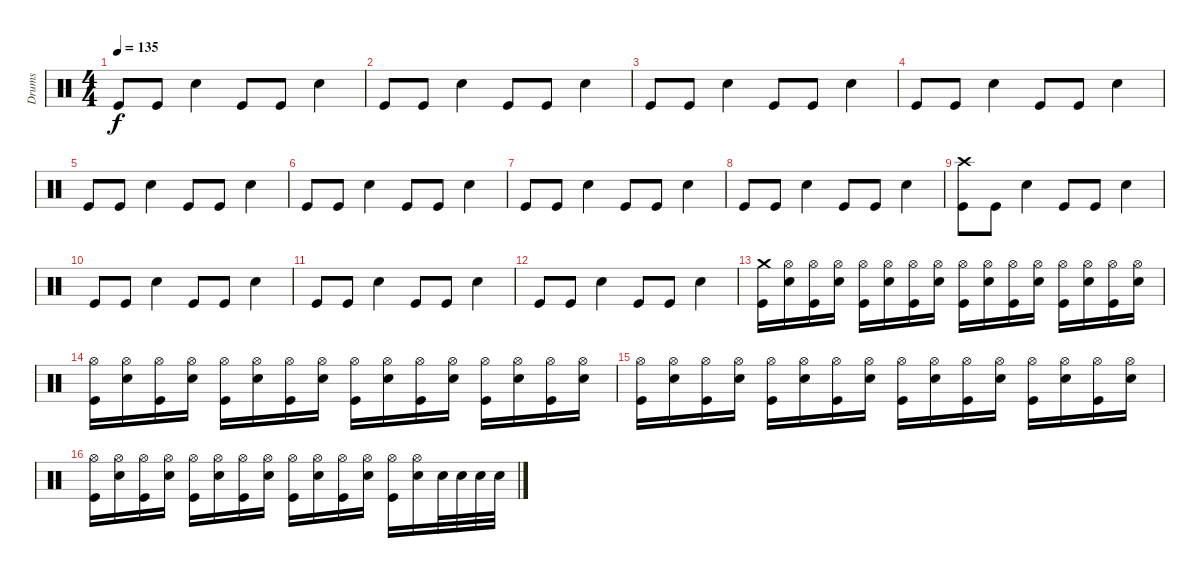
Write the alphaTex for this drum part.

\track ("Drums" "Drums") {instrument percussion}
\staff {score}
\articulation defaults
\ts (4 4)
\tempo 135
\clef neutral
\ks c "Kick (hit)".8{dy f} "Kick (hit)".8 "Snare (hit) 2".4 "Kick (hit)".8 "Kick (hit)".8 "Snare (hit) 2".4
|
"Kick (hit)".8 "Kick (hit)".8 "Snare (hit) 2".4 "Kick (hit)".8 "Kick (hit)".8 "Snare (hit) 2".4 |
"Kick (hit)".8 "Kick (hit)".8 "Snare (hit) 2".4 "Kick (hit)".8 "Kick (hit)".8 "Snare (hit) 2".4 |
"Kick (hit)".8 "Kick (hit)".8 "Snare (hit) 2".4 "Kick (hit)".8 "Kick (hit)".8 "Snare (hit) 2".4 |
"Kick (hit)".8 "Kick (hit)".8 "Snare (hit) 2".4 "Kick (hit)".8 "Kick (hit)".8 "Snare (hit) 2".4 |
"Kick (hit)".8 "Kick (hit)".8 "Snare (hit) 2".4 "Kick (hit)".8 "Kick (hit)".8 "Snare (hit) 2".4 |
"Kick (hit)".8 "Kick (hit)".8 "Snare (hit) 2".4 "Kick (hit)".8 "Kick (hit)".8 "Snare (hit) 2".4 |
"Kick (hit)".8 "Kick (hit)".8 "Snare (hit) 2".4 "Kick (hit)".8 "Kick (hit)".8 "Snare (hit) 2".4 |
("Crash high (hit)" "Kick (hit)").8 "Kick (hit)".8 "Snare (hit) 2".4 "Kick (hit)".8 "Kick (hit)".8 "Snare (hit) 2".4 |
"Kick (hit)".8 "Kick (hit)".8 "Snare (hit) 2".4 "Kick (hit)".8 "Kick (hit)".8 "Snare (hit) 2".4 |
"Kick (hit)".8 "Kick (hit)".8 "Snare (hit) 2".4 "Kick (hit)".8 "Kick (hit)".8 "Snare (hit) 2".4 |
"Kick (hit)".8 "Kick (hit)".8 "Snare (hit) 2".4 "Kick (hit)".8 "Kick (hit)".8 "Snare (hit) 2".4 |
("Crash medium (hit)" "Kick (hit)").16 ("Hi-Hat (open)" "Snare (hit) 2").16 ("Hi-Hat (open)" "Kick (hit)").16 ("Hi-Hat (open)" "Snare (hit) 2").16 ("Hi-Hat (open)" "Kick (hit)").16 ("Hi-Hat (open)" "Snare (hit) 2").16 ("Hi-Hat (open)" "Kick (hit)").16 ("Hi-Hat (open)" "Snare (hit) 2").16 ("Hi-Hat (open)" "Kick (hit)").16 ("Hi-Hat (open)" "Snare (hit) 2").16 ("Hi-Hat (open)" "Kick (hit)").16 ("Hi-Hat (open)" "Snare (hit) 2").16 ("Hi-Hat (open)" "Kick (hit)").16 ("Hi-Hat (open)" "Snare (hit) 2").16 ("Hi-Hat (open)" "Kick (hit)").16 ("Hi-Hat (open)" "Snare (hit) 2").16 |
("Hi-Hat (open)" "Kick (hit)").16 ("Hi-Hat (open)" "Snare (hit) 2").16 ("Hi-Hat (open)" "Kick (hit)").16 ("Hi-Hat (open)" "Snare (hit) 2").16 ("Hi-Hat (open)" "Kick (hit)").16 ("Hi-Hat (open)" "Snare (hit) 2").16 ("Hi-Hat (open)" "Kick (hit)").16 ("Hi-Hat (open)" "Snare (hit) 2").16 ("Hi-Hat (open)" "Kick (hit)").16 ("Hi-Hat (open)" "Snare (hit) 2").16 ("Hi-Hat (open)" "Kick (hit)").16 ("Hi-Hat (open)" "Snare (hit) 2").16 ("Hi-Hat (open)" "Kick (hit)").16 ("Hi-Hat (open)" "Snare (hit) 2").16 ("Hi-Hat (open)" "Kick (hit)").16 ("Hi-Hat (open)" "Snare (hit) 2").16 |
("Hi-Hat (open)" "Kick (hit)").16 ("Hi-Hat (open)" "Snare (hit) 2").16 ("Hi-Hat (open)" "Kick (hit)").16 ("Hi-Hat (open)" "Snare (hit) 2").16 ("Hi-Hat (open)" "Kick (hit)").16 ("Hi-Hat (open)" "Snare (hit) 2").16 ("Hi-Hat (open)" "Kick (hit)").16 ("Hi-Hat (open)" "Snare (hit) 2").16 ("Hi-Hat (open)" "Kick (hit)").16 ("Hi-Hat (open)" "Snare (hit) 2").16 ("Hi-Hat (open)" "Kick (hit)").16 ("Hi-Hat (open)" "Snare (hit) 2").16 ("Hi-Hat (open)" "Kick (hit)").16 ("Hi-Hat (open)" "Snare (hit) 2").16 ("Hi-Hat (open)" "Kick (hit)").16 ("Hi-Hat (open)" "Snare (hit) 2").16 |
("Hi-Hat (open)" "Kick (hit)").16 ("Hi-Hat (open)" "Snare (hit) 2").16 ("Hi-Hat (open)" "Kick (hit)").16 ("Hi-Hat (open)" "Snare (hit) 2").16 ("Hi-Hat (open)" "Kick (hit)").16 ("Hi-Hat (open)" "Snare (hit) 2").16 ("Hi-Hat (open)" "Kick (hit)").16 ("Hi-Hat (open)" "Snare (hit) 2").16 ("Hi-Hat (open)" "Kick (hit)").16 ("Hi-Hat (open)" "Snare (hit) 2").16 ("Hi-Hat (open)" "Kick (hit)").16 ("Hi-Hat (open)" "Snare (hit) 2").16 ("Hi-Hat (open)" "Kick (hit)").16 ("Hi-Hat (open)" "Snare (hit) 2").16 "Snare (hit) 2".32 "Snare (hit) 2".32 "Snare (hit) 2".32 "Snare (hit) 2".32
